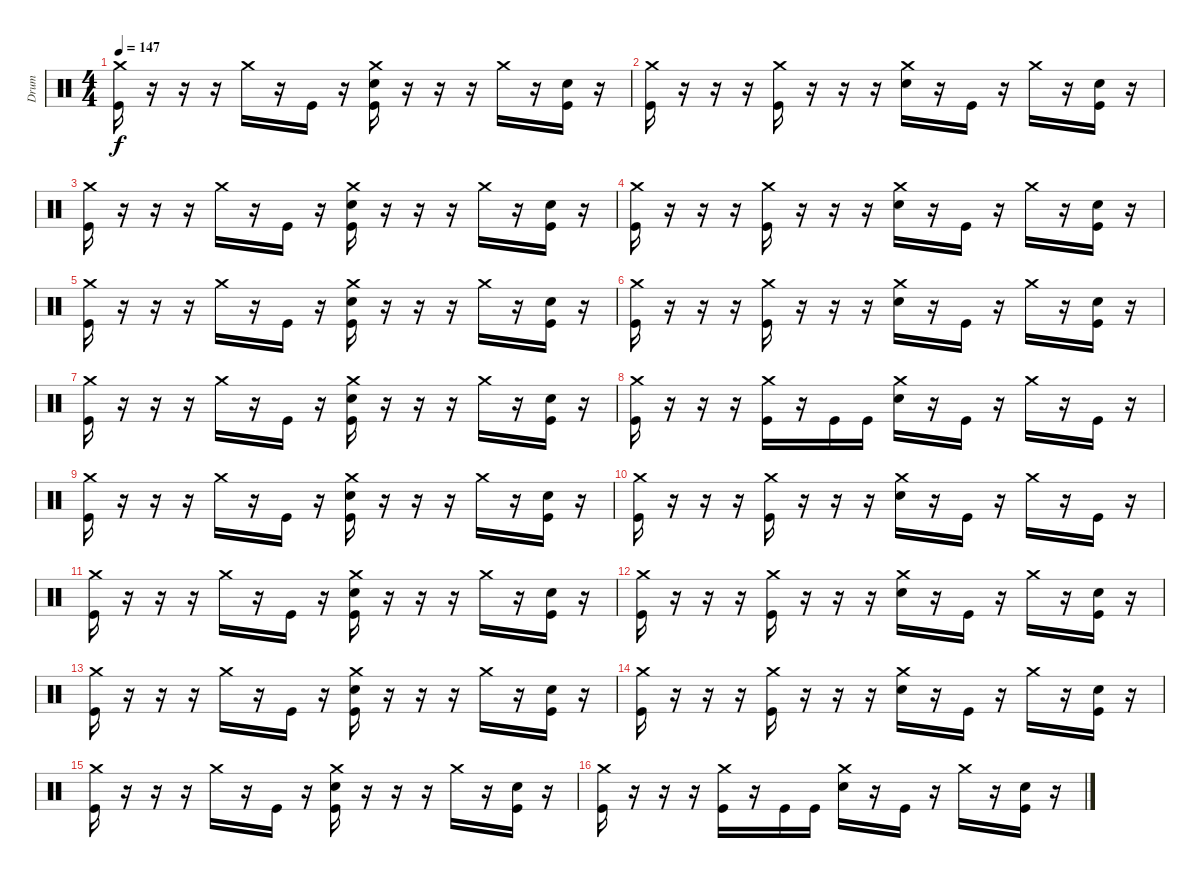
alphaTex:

\track ("Drum" "Drum") {instrument percussion}
\staff {score}
\articulation defaults
\ts (4 4)
\tempo 147
\clef neutral
\ks c
("Crash medium (hit)" "Kick (hit)").16{dy f} r.16 r.16 r.16 "Crash medium (hit)".16 r.16 "Kick (hit)".16 r.16 ("Crash medium (hit)" "Electric Snare (hit)" "Kick (hit)").16 r.16 r.16 r.16 "Crash medium (hit)".16 r.16 ("Electric Snare (hit)" "Kick (hit)").16 r.16 |
("Crash medium (hit)" "Kick (hit)").16 r.16 r.16 r.16 ("Crash medium (hit)" "Kick (hit)").16 r.16 r.16 r.16 ("Crash medium (hit)" "Electric Snare (hit)").16 r.16 "Kick (hit)".16 r.16 "Crash medium (hit)".16 r.16 ("Electric Snare (hit)" "Kick (hit)").16 r.16 |
("Crash medium (hit)" "Kick (hit)").16 r.16 r.16 r.16 "Crash medium (hit)".16 r.16 "Kick (hit)".16 r.16 ("Crash medium (hit)" "Electric Snare (hit)" "Kick (hit)").16 r.16 r.16 r.16 "Crash medium (hit)".16 r.16 ("Electric Snare (hit)" "Kick (hit)").16 r.16 |
("Crash medium (hit)" "Kick (hit)").16 r.16 r.16 r.16 ("Crash medium (hit)" "Kick (hit)").16 r.16 r.16 r.16 ("Crash medium (hit)" "Electric Snare (hit)").16 r.16 "Kick (hit)".16 r.16 "Crash medium (hit)".16 r.16 ("Electric Snare (hit)" "Kick (hit)").16 r.16 |
("Crash medium (hit)" "Kick (hit)").16 r.16 r.16 r.16 "Crash medium (hit)".16 r.16 "Kick (hit)".16 r.16 ("Crash medium (hit)" "Electric Snare (hit)" "Kick (hit)").16 r.16 r.16 r.16 "Crash medium (hit)".16 r.16 ("Electric Snare (hit)" "Kick (hit)").16 r.16 |
("Crash medium (hit)" "Kick (hit)").16 r.16 r.16 r.16 ("Crash medium (hit)" "Kick (hit)").16 r.16 r.16 r.16 ("Crash medium (hit)" "Electric Snare (hit)").16 r.16 "Kick (hit)".16 r.16 "Crash medium (hit)".16 r.16 ("Electric Snare (hit)" "Kick (hit)").16 r.16 |
("Crash medium (hit)" "Kick (hit)").16 r.16 r.16 r.16 "Crash medium (hit)".16 r.16 "Kick (hit)".16 r.16 ("Crash medium (hit)" "Electric Snare (hit)" "Kick (hit)").16 r.16 r.16 r.16 "Crash medium (hit)".16 r.16 ("Electric Snare (hit)" "Kick (hit)").16 r.16 |
("Crash medium (hit)" "Kick (hit)").16 r.16 r.16 r.16 ("Crash medium (hit)" "Kick (hit)").16 r.16 "Kick (hit)".16 "Kick (hit)".16 ("Crash medium (hit)" "Electric Snare (hit)").16 r.16 "Kick (hit)".16 r.16 "Crash medium (hit)".16 r.16 "Kick (hit)".16 r.16 |
("Crash medium (hit)" "Kick (hit)").16 r.16 r.16 r.16 "Crash medium (hit)".16 r.16 "Kick (hit)".16 r.16 ("Crash medium (hit)" "Electric Snare (hit)" "Kick (hit)").16 r.16 r.16 r.16 "Crash medium (hit)".16 r.16 ("Electric Snare (hit)" "Kick (hit)").16 r.16 |
("Crash medium (hit)" "Kick (hit)").16 r.16 r.16 r.16 ("Crash medium (hit)" "Kick (hit)").16 r.16 r.16 r.16 ("Crash medium (hit)" "Electric Snare (hit)").16 r.16 "Kick (hit)".16 r.16 "Crash medium (hit)".16 r.16 "Kick (hit)".16 r.16 |
("Crash medium (hit)" "Kick (hit)").16 r.16 r.16 r.16 "Crash medium (hit)".16 r.16 "Kick (hit)".16 r.16 ("Crash medium (hit)" "Electric Snare (hit)" "Kick (hit)").16 r.16 r.16 r.16 "Crash medium (hit)".16 r.16 ("Electric Snare (hit)" "Kick (hit)").16 r.16 |
("Crash medium (hit)" "Kick (hit)").16 r.16 r.16 r.16 ("Crash medium (hit)" "Kick (hit)").16 r.16 r.16 r.16 ("Crash medium (hit)" "Electric Snare (hit)").16 r.16 "Kick (hit)".16 r.16 "Crash medium (hit)".16 r.16 ("Electric Snare (hit)" "Kick (hit)").16 r.16 |
("Crash medium (hit)" "Kick (hit)").16 r.16 r.16 r.16 "Crash medium (hit)".16 r.16 "Kick (hit)".16 r.16 ("Crash medium (hit)" "Electric Snare (hit)" "Kick (hit)").16 r.16 r.16 r.16 "Crash medium (hit)".16 r.16 ("Electric Snare (hit)" "Kick (hit)").16 r.16 |
("Crash medium (hit)" "Kick (hit)").16 r.16 r.16 r.16 ("Crash medium (hit)" "Kick (hit)").16 r.16 r.16 r.16 ("Crash medium (hit)" "Electric Snare (hit)").16 r.16 "Kick (hit)".16 r.16 "Crash medium (hit)".16 r.16 ("Electric Snare (hit)" "Kick (hit)").16 r.16 |
("Crash medium (hit)" "Kick (hit)").16 r.16 r.16 r.16 "Crash medium (hit)".16 r.16 "Kick (hit)".16 r.16 ("Crash medium (hit)" "Electric Snare (hit)" "Kick (hit)").16 r.16 r.16 r.16 "Crash medium (hit)".16 r.16 ("Electric Snare (hit)" "Kick (hit)").16 r.16 |
("Crash medium (hit)" "Kick (hit)").16 r.16 r.16 r.16 ("Crash medium (hit)" "Kick (hit)").16 r.16 "Kick (hit)".16 "Kick (hit)".16 ("Crash medium (hit)" "Electric Snare (hit)").16 r.16 "Kick (hit)".16 r.16 "Crash medium (hit)".16 r.16 ("Electric Snare (hit)" "Kick (hit)").16 r.16
